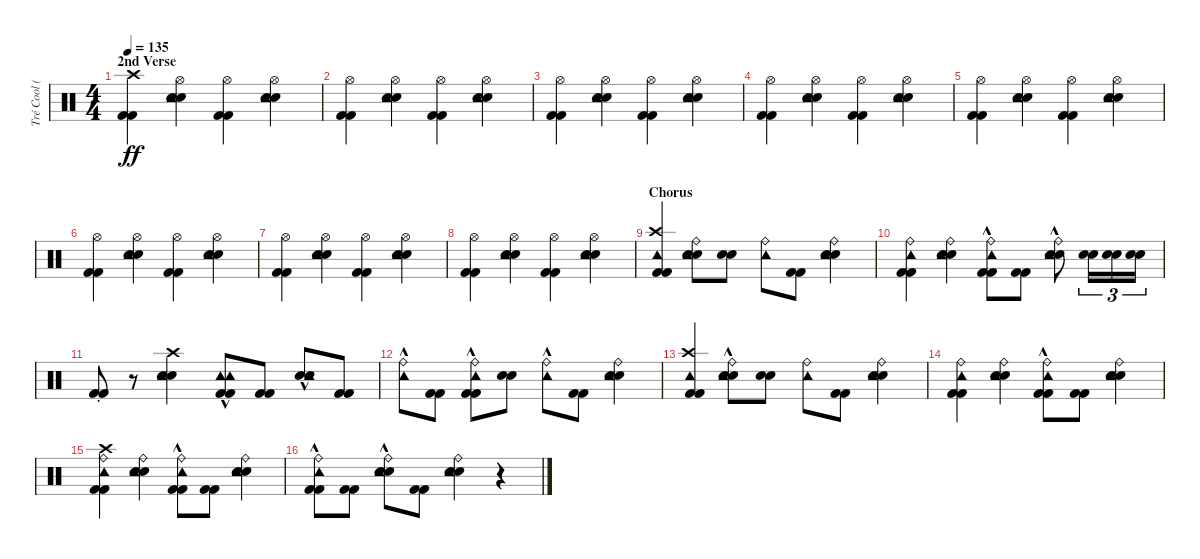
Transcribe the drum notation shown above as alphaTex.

\track ("Tré Cool (Drums)" "Tré Cool (") {instrument percussion}
\staff {score}
\articulation defaults
\ts (4 4)
\section ("" "2nd Verse")
\tempo 135
\clef neutral
\ks c
("Kick (hit) 2" "Kick (hit) 2" "Crash high (hit)").4{dy ff} ("Snare (hit) 2" "Snare (hit) 2" "Tambourine (hit)" "Hi-Hat (open)").4 ("Kick (hit) 2" "Kick (hit) 2" "Hi-Hat (open)").4 ("Snare (hit) 2" "Snare (hit) 2" "Tambourine (hit)" "Hi-Hat (open)").4 |
("Kick (hit) 2" "Kick (hit) 2" "Hi-Hat (open)").4 ("Snare (hit) 2" "Snare (hit) 2" "Tambourine (hit)" "Hi-Hat (open)").4 ("Kick (hit) 2" "Kick (hit) 2" "Hi-Hat (open)").4 ("Snare (hit) 2" "Snare (hit) 2" "Tambourine (hit)" "Hi-Hat (open)").4 |
("Kick (hit) 2" "Kick (hit) 2" "Hi-Hat (open)").4 ("Snare (hit) 2" "Snare (hit) 2" "Tambourine (hit)" "Hi-Hat (open)").4 ("Kick (hit) 2" "Kick (hit) 2" "Hi-Hat (open)").4 ("Snare (hit) 2" "Snare (hit) 2" "Tambourine (hit)" "Hi-Hat (open)").4 |
("Kick (hit) 2" "Kick (hit) 2" "Hi-Hat (open)").4 ("Snare (hit) 2" "Snare (hit) 2" "Tambourine (hit)" "Hi-Hat (open)").4 ("Kick (hit) 2" "Kick (hit) 2" "Hi-Hat (open)").4 ("Snare (hit) 2" "Snare (hit) 2" "Tambourine (hit)" "Hi-Hat (open)").4 |
("Kick (hit) 2" "Kick (hit) 2" "Hi-Hat (open)").4 ("Snare (hit) 2" "Snare (hit) 2" "Tambourine (hit)" "Hi-Hat (open)").4 ("Kick (hit) 2" "Kick (hit) 2" "Hi-Hat (open)").4 ("Snare (hit) 2" "Snare (hit) 2" "Tambourine (hit)" "Hi-Hat (open)").4 |
("Kick (hit) 2" "Kick (hit) 2" "Hi-Hat (open)").4 ("Snare (hit) 2" "Snare (hit) 2" "Tambourine (hit)" "Hi-Hat (open)").4 ("Kick (hit) 2" "Kick (hit) 2" "Hi-Hat (open)").4 ("Snare (hit) 2" "Snare (hit) 2" "Tambourine (hit)" "Hi-Hat (open)").4 |
("Kick (hit) 2" "Kick (hit) 2" "Hi-Hat (open)").4 ("Snare (hit) 2" "Snare (hit) 2" "Tambourine (hit)" "Hi-Hat (open)").4 ("Kick (hit) 2" "Kick (hit) 2" "Hi-Hat (open)").4 ("Snare (hit) 2" "Snare (hit) 2" "Tambourine (hit)" "Hi-Hat (open)").4 |
("Kick (hit) 2" "Kick (hit) 2" "Hi-Hat (open)").4 ("Snare (hit) 2" "Snare (hit) 2" "Tambourine (hit)" "Hi-Hat (open)").4 ("Kick (hit) 2" "Kick (hit) 2" "Hi-Hat (open)").4 ("Snare (hit) 2" "Snare (hit) 2" "Tambourine (hit)" "Hi-Hat (open)").4 |
\section ("" "Chorus")
("Kick (hit) 2" "Kick (hit) 2" "Tambourine (hit)" "Crash high (hit)").4 ("Snare (hit) 2" "Snare (hit) 2" "Ride (bell)" "Tambourine (hit)").8 ("Snare (hit) 2" "Snare (hit) 2").8 ("Ride (bell)" "Tambourine (hit)").8 ("Kick (hit) 2" "Kick (hit) 2").8 ("Snare (hit) 2" "Snare (hit) 2" "Ride (bell)" "Tambourine (hit)").4 |
("Kick (hit) 2" "Kick (hit) 2" "Ride (bell)" "Tambourine (hit)").4 ("Snare (hit) 2" "Snare (hit) 2" "Ride (bell)" "Tambourine (hit)").4 ("Kick (hit) 2" "Kick (hit) 2" "Ride (bell)"{hac} "Tambourine (hit)"{hac}).8 ("Kick (hit) 2" "Kick (hit) 2").8 ("Snare (hit) 2"{hac} "Snare (hit) 2"{hac} "Ride (bell)" "Tambourine (hit)").8 ("Snare (hit) 2" "Snare (hit) 2").16{tu (3 2)} ("Snare (hit) 2" "Snare (hit) 2").16{tu (3 2)} ("Snare (hit) 2" "Snare (hit) 2").16{tu (3 2)} |
("Kick (hit) 2"{st} "Kick (hit) 2"{st}).8 r.8 ("Snare (hit) 2" "Snare (hit) 2" "Tambourine (hit)" "Crash high (hit)").4 ("Kick (hit) 2" "Kick (hit) 2" "Tambourine (hit)"{hac} "Tambourine (hit)"{hac}).8 ("Kick (hit) 2" "Kick (hit) 2").8 ("Snare (hit) 2" "Snare (hit) 2" "Tambourine (hit)"{hac} "Tambourine (hit)"{hac}).8 ("Kick (hit) 2" "Kick (hit) 2").8 |
("Ride (bell)"{hac} "Tambourine (hit)"{hac}).8 ("Kick (hit) 2" "Kick (hit) 2").8 ("Kick (hit) 2" "Kick (hit) 2" "Ride (bell)"{hac} "Tambourine (hit)"{hac}).8 ("Snare (hit) 2" "Snare (hit) 2").8 ("Ride (bell)"{hac} "Tambourine (hit)"{hac}).8 ("Kick (hit) 2" "Kick (hit) 2").8 ("Snare (hit) 2" "Snare (hit) 2" "Ride (bell)" "Tambourine (hit)").4 |
("Kick (hit) 2" "Kick (hit) 2" "Crash high (hit)" "Tambourine (hit)").4 ("Snare (hit) 2" "Snare (hit) 2" "Ride (bell)"{hac} "Tambourine (hit)"{hac}).8 ("Snare (hit) 2" "Snare (hit) 2").8 ("Ride (bell)" "Tambourine (hit)").8 ("Kick (hit) 2" "Kick (hit) 2").8 ("Snare (hit) 2" "Snare (hit) 2" "Ride (bell)" "Tambourine (hit)").4 |
("Kick (hit) 2" "Kick (hit) 2" "Ride (bell)" "Tambourine (hit)").4 ("Snare (hit) 2" "Snare (hit) 2" "Ride (bell)" "Tambourine (hit)").4 ("Kick (hit) 2" "Kick (hit) 2" "Ride (bell)"{hac} "Tambourine (hit)"{hac}).8 ("Kick (hit) 2" "Kick (hit) 2").8 ("Snare (hit) 2" "Snare (hit) 2" "Ride (bell)" "Tambourine (hit)").4 |
("Kick (hit) 2" "Kick (hit) 2" "Ride (bell)" "Tambourine (hit)" "Crash high (hit)").4 ("Snare (hit) 2" "Snare (hit) 2" "Ride (bell)" "Tambourine (hit)").4 ("Kick (hit) 2" "Kick (hit) 2" "Ride (bell)"{hac} "Tambourine (hit)"{hac}).8 ("Kick (hit) 2" "Kick (hit) 2").8 ("Snare (hit) 2" "Snare (hit) 2" "Ride (bell)" "Tambourine (hit)").4 |
("Kick (hit) 2" "Kick (hit) 2" "Ride (bell)"{hac} "Tambourine (hit)"{hac}).8 ("Kick (hit) 2" "Kick (hit) 2").8 ("Snare (hit) 2" "Snare (hit) 2" "Ride (bell)" "Tambourine (hit)"{hac}).8 ("Kick (hit) 2" "Kick (hit) 2").8 ("Snare (hit) 2" "Snare (hit) 2" "Ride (bell)" "Tambourine (hit)").4 r.4
